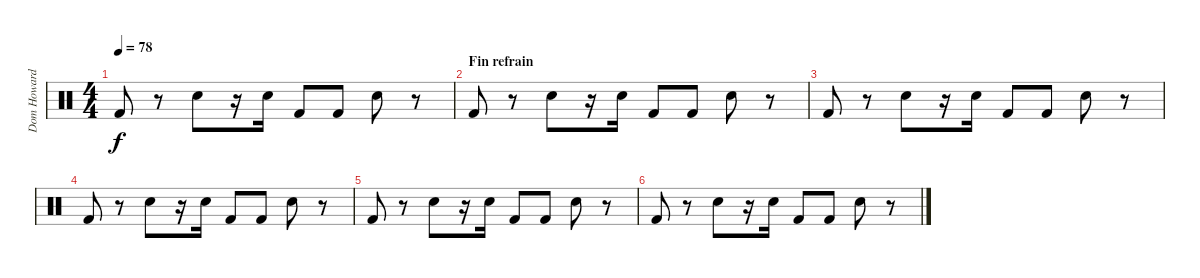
\track ("Dom Howard" "Dom Howard") {instrument percussion}
\staff {score}
\articulation defaults
\ts (4 4)
\tempo 78
\clef neutral
\ks c "Kick (hit) 2".8{dy f}
r.8 "Electric Snare (hit)".8 r.16 "Electric Snare (hit)".16 "Kick (hit) 2".8 "Kick (hit) 2".8 "Electric Snare (hit)".8 r.8 |
\section ("" "Fin refrain")
"Kick (hit) 2".8 r.8 "Electric Snare (hit)".8 r.16 "Electric Snare (hit)".16 "Kick (hit) 2".8 "Kick (hit) 2".8 "Electric Snare (hit)".8 r.8 |
"Kick (hit) 2".8 r.8 "Electric Snare (hit)".8 r.16 "Electric Snare (hit)".16 "Kick (hit) 2".8 "Kick (hit) 2".8 "Electric Snare (hit)".8 r.8 |
"Kick (hit) 2".8 r.8 "Electric Snare (hit)".8 r.16 "Electric Snare (hit)".16 "Kick (hit) 2".8 "Kick (hit) 2".8 "Electric Snare (hit)".8 r.8 |
"Kick (hit) 2".8 r.8 "Electric Snare (hit)".8 r.16 "Electric Snare (hit)".16 "Kick (hit) 2".8 "Kick (hit) 2".8 "Electric Snare (hit)".8 r.8 |
"Kick (hit) 2".8 r.8 "Electric Snare (hit)".8 r.16 "Electric Snare (hit)".16 "Kick (hit) 2".8 "Kick (hit) 2".8 "Electric Snare (hit)".8 r.8
